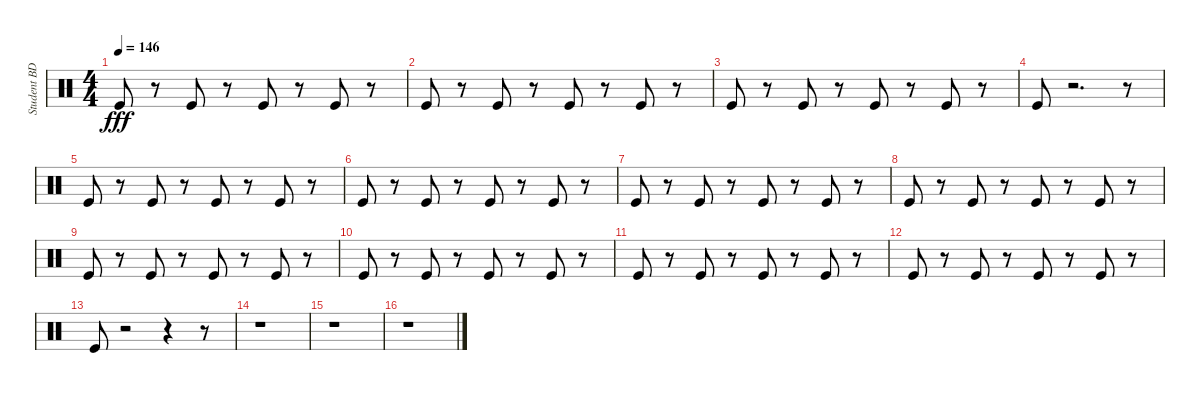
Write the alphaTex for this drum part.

\track ("Student BD" "Student BD") {instrument percussion}
\staff {score}
\articulation defaults
\ts (4 4)
\tempo 146
\clef neutral
\ks c "Kick (hit)".8{dy fff}
r.8 "Kick (hit)".8 r.8 "Kick (hit)".8 r.8 "Kick (hit)".8 r.8 |
"Kick (hit)".8 r.8 "Kick (hit)".8 r.8 "Kick (hit)".8 r.8 "Kick (hit)".8 r.8 |
"Kick (hit)".8 r.8 "Kick (hit)".8 r.8 "Kick (hit)".8 r.8 "Kick (hit)".8 r.8 |
"Kick (hit)".8 r.2{d} r.8 |
"Kick (hit)".8 r.8 "Kick (hit)".8 r.8 "Kick (hit)".8 r.8 "Kick (hit)".8 r.8 |
"Kick (hit)".8 r.8 "Kick (hit)".8 r.8 "Kick (hit)".8 r.8 "Kick (hit)".8 r.8 |
"Kick (hit)".8 r.8 "Kick (hit)".8 r.8 "Kick (hit)".8 r.8 "Kick (hit)".8 r.8 |
"Kick (hit)".8 r.8 "Kick (hit)".8 r.8 "Kick (hit)".8 r.8 "Kick (hit)".8 r.8 |
"Kick (hit)".8 r.8 "Kick (hit)".8 r.8 "Kick (hit)".8 r.8 "Kick (hit)".8 r.8 |
"Kick (hit)".8 r.8 "Kick (hit)".8 r.8 "Kick (hit)".8 r.8 "Kick (hit)".8 r.8 |
"Kick (hit)".8 r.8 "Kick (hit)".8 r.8 "Kick (hit)".8 r.8 "Kick (hit)".8 r.8 |
"Kick (hit)".8 r.8 "Kick (hit)".8 r.8 "Kick (hit)".8 r.8 "Kick (hit)".8 r.8 |
"Kick (hit)".8 r.2 r.4 r.8 |
r.1 |
r.1 |
r.1
